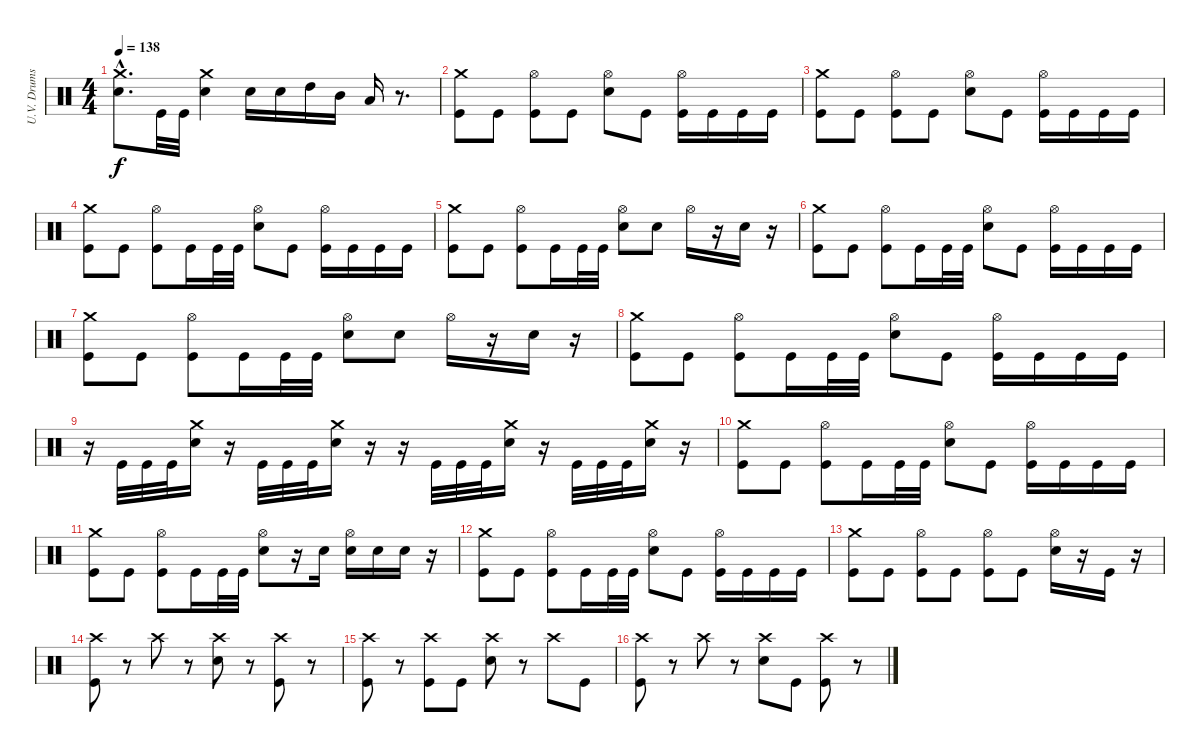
\track ("U.V. Drums" "U.V. Drums") {instrument percussion}
\staff {score}
\articulation defaults
\ts (4 4)
\tempo 138
\clef neutral
\ks c
("Crash medium (hit)"{hac} "Electric Snare (hit)"{hac}).8{d dy f} "Kick (hit)".32 "Kick (hit)".32 ("Crash medium (hit)" "Electric Snare (hit)").4 "Electric Snare (hit)".16 "Electric Snare (hit)".16 "High Tom (hit)".16 "Mid Tom (hit)".16 "Low Tom (hit)".16 r.8{d} |
("Crash medium (hit)" "Kick (hit)").8 "Kick (hit)".8 ("Hi-Hat (open)" "Kick (hit)").8 "Kick (hit)".8 ("Hi-Hat (open)" "Electric Snare (hit)").8 "Kick (hit)".8 ("Hi-Hat (open)" "Kick (hit)").16 "Kick (hit)".16 "Kick (hit)".16 "Kick (hit)".16 |
("Crash medium (hit)" "Kick (hit)").8 "Kick (hit)".8 ("Hi-Hat (open)" "Kick (hit)").8 "Kick (hit)".8 ("Hi-Hat (open)" "Electric Snare (hit)").8 "Kick (hit)".8 ("Hi-Hat (open)" "Kick (hit)").16 "Kick (hit)".16 "Kick (hit)".16 "Kick (hit)".16 |
("Crash medium (hit)" "Kick (hit)").8 "Kick (hit)".8 ("Hi-Hat (open)" "Kick (hit)").8 "Kick (hit)".16 "Kick (hit)".32 "Kick (hit)".32 ("Hi-Hat (open)" "Electric Snare (hit)").8 "Kick (hit)".8 ("Hi-Hat (open)" "Kick (hit)").16 "Kick (hit)".16 "Kick (hit)".16 "Kick (hit)".16 |
("Crash medium (hit)" "Kick (hit)").8 "Kick (hit)".8 ("Hi-Hat (open)" "Kick (hit)").8 "Kick (hit)".16 "Kick (hit)".32 "Kick (hit)".32 ("Hi-Hat (open)" "Electric Snare (hit)").8 "Electric Snare (hit)".8 "Hi-Hat (open)".16 r.16 "Electric Snare (hit)".16 r.16 |
("Crash medium (hit)" "Kick (hit)").8 "Kick (hit)".8 ("Hi-Hat (open)" "Kick (hit)").8 "Kick (hit)".16 "Kick (hit)".32 "Kick (hit)".32 ("Hi-Hat (open)" "Electric Snare (hit)").8 "Kick (hit)".8 ("Hi-Hat (open)" "Kick (hit)").16 "Kick (hit)".16 "Kick (hit)".16 "Kick (hit)".16 |
("Crash medium (hit)" "Kick (hit)").8 "Kick (hit)".8 ("Hi-Hat (open)" "Kick (hit)").8 "Kick (hit)".16 "Kick (hit)".32 "Kick (hit)".32 ("Hi-Hat (open)" "Electric Snare (hit)").8 "Electric Snare (hit)".8 "Hi-Hat (open)".16 r.16 "Electric Snare (hit)".16 r.16 |
("Crash medium (hit)" "Kick (hit)").8 "Kick (hit)".8 ("Hi-Hat (open)" "Kick (hit)").8 "Kick (hit)".16 "Kick (hit)".32 "Kick (hit)".32 ("Hi-Hat (open)" "Electric Snare (hit)").8 "Kick (hit)".8 ("Hi-Hat (open)" "Kick (hit)").16 "Kick (hit)".16 "Kick (hit)".16 "Kick (hit)".16 |
r.16 "Kick (hit)".32 "Kick (hit)".32 "Kick (hit)".32 ("Crash medium (hit)" "Electric Snare (hit)").16 r.16 "Kick (hit)".32 "Kick (hit)".32 "Kick (hit)".32 ("Crash medium (hit)" "Electric Snare (hit)").16 r.16 r.16 "Kick (hit)".32 "Kick (hit)".32 "Kick (hit)".32 ("Crash medium (hit)" "Electric Snare (hit)").16 r.16 "Kick (hit)".32 "Kick (hit)".32 "Kick (hit)".32 ("Crash medium (hit)" "Electric Snare (hit)").16 r.16 |
("Crash medium (hit)" "Kick (hit)").8 "Kick (hit)".8 ("Hi-Hat (open)" "Kick (hit)").8 "Kick (hit)".16 "Kick (hit)".32 "Kick (hit)".32 ("Hi-Hat (open)" "Electric Snare (hit)").8 "Kick (hit)".8 ("Hi-Hat (open)" "Kick (hit)").16 "Kick (hit)".16 "Kick (hit)".16 "Kick (hit)".16 |
("Crash medium (hit)" "Kick (hit)").8 "Kick (hit)".8 ("Hi-Hat (open)" "Kick (hit)").8 "Kick (hit)".16 "Kick (hit)".32 "Kick (hit)".32 ("Hi-Hat (open)" "Electric Snare (hit)").8 r.16 "Electric Snare (hit)".16 ("Hi-Hat (open)" "Electric Snare (hit)").16 "Electric Snare (hit)".16 "Electric Snare (hit)".16 r.16 |
("Crash medium (hit)" "Kick (hit)").8 "Kick (hit)".8 ("Hi-Hat (open)" "Kick (hit)").8 "Kick (hit)".16 "Kick (hit)".32 "Kick (hit)".32 ("Hi-Hat (open)" "Electric Snare (hit)").8 "Kick (hit)".8 ("Hi-Hat (open)" "Kick (hit)").16 "Kick (hit)".16 "Kick (hit)".16 "Kick (hit)".16 |
("Crash medium (hit)" "Kick (hit)").8 "Kick (hit)".8 ("Hi-Hat (open)" "Kick (hit)").8 "Kick (hit)".8 ("Hi-Hat (open)" "Kick (hit)").8 "Kick (hit)".8 ("Hi-Hat (open)" "Electric Snare (hit)").16 r.16 "Kick (hit)".16 r.16 |
("Crash high (hit)" "Kick (hit)").8 r.8 "Crash high (hit)".8 r.8 ("Crash high (hit)" "Electric Snare (hit)").8 r.8 ("Crash high (hit)" "Kick (hit)").8 r.8 |
("Crash high (hit)" "Kick (hit)").8 r.8 ("Crash high (hit)" "Kick (hit)").8 "Kick (hit)".8 ("Crash high (hit)" "Electric Snare (hit)").8 r.8 "Crash high (hit)".8 "Kick (hit)".8 |
("Crash high (hit)" "Kick (hit)").8 r.8 "Crash high (hit)".8 r.8 ("Crash high (hit)" "Electric Snare (hit)").8 "Kick (hit)".8 ("Crash high (hit)" "Kick (hit)").8 r.8
